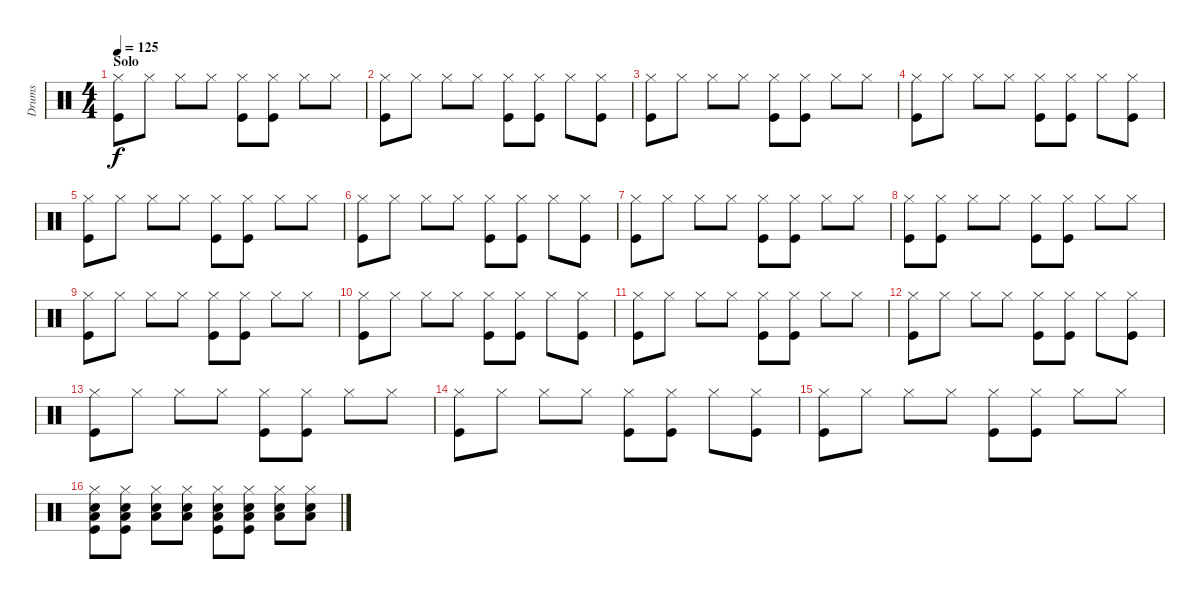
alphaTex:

\track ("Drums" "Drums") {instrument percussion}
\staff {score}
\articulation defaults
\ts (4 4)
\section ("" "Solo")
\tempo 125
\clef neutral
\ks c
("Hi-Hat (closed)" "Kick (hit)").8{dy f} "Hi-Hat (closed)".8 "Hi-Hat (closed)".8 "Hi-Hat (closed)".8 ("Hi-Hat (closed)" "Kick (hit)").8 ("Hi-Hat (closed)" "Kick (hit)").8 "Hi-Hat (closed)".8 "Hi-Hat (closed)".8 |
("Hi-Hat (closed)" "Kick (hit)").8 "Hi-Hat (closed)".8 "Hi-Hat (closed)".8 "Hi-Hat (closed)".8 ("Hi-Hat (closed)" "Kick (hit)").8 ("Hi-Hat (closed)" "Kick (hit)").8 "Hi-Hat (closed)".8 ("Hi-Hat (closed)" "Kick (hit)").8 |
("Hi-Hat (closed)" "Kick (hit)").8 "Hi-Hat (closed)".8 "Hi-Hat (closed)".8 "Hi-Hat (closed)".8 ("Hi-Hat (closed)" "Kick (hit)").8 ("Hi-Hat (closed)" "Kick (hit)").8 "Hi-Hat (closed)".8 "Hi-Hat (closed)".8 |
("Hi-Hat (closed)" "Kick (hit)").8 "Hi-Hat (closed)".8 "Hi-Hat (closed)".8 "Hi-Hat (closed)".8 ("Hi-Hat (closed)" "Kick (hit)").8 ("Hi-Hat (closed)" "Kick (hit)").8 "Hi-Hat (closed)".8 ("Hi-Hat (closed)" "Kick (hit)").8 |
("Hi-Hat (closed)" "Kick (hit)").8 "Hi-Hat (closed)".8 "Hi-Hat (closed)".8 "Hi-Hat (closed)".8 ("Hi-Hat (closed)" "Kick (hit)").8 ("Hi-Hat (closed)" "Kick (hit)").8 "Hi-Hat (closed)".8 "Hi-Hat (closed)".8 |
("Hi-Hat (closed)" "Kick (hit)").8 "Hi-Hat (closed)".8 "Hi-Hat (closed)".8 "Hi-Hat (closed)".8 ("Hi-Hat (closed)" "Kick (hit)").8 ("Hi-Hat (closed)" "Kick (hit)").8 "Hi-Hat (closed)".8 ("Hi-Hat (closed)" "Kick (hit)").8 |
("Hi-Hat (closed)" "Kick (hit)").8 "Hi-Hat (closed)".8 "Hi-Hat (closed)".8 "Hi-Hat (closed)".8 ("Hi-Hat (closed)" "Kick (hit)").8 ("Hi-Hat (closed)" "Kick (hit)").8 "Hi-Hat (closed)".8 "Hi-Hat (closed)".8 |
("Hi-Hat (closed)" "Kick (hit)").8 ("Hi-Hat (closed)" "Kick (hit)").8 "Hi-Hat (closed)".8 "Hi-Hat (closed)".8 ("Hi-Hat (closed)" "Kick (hit)").8 ("Hi-Hat (closed)" "Kick (hit)").8 "Hi-Hat (closed)".8 "Hi-Hat (closed)".8 |
("Hi-Hat (closed)" "Kick (hit)").8 "Hi-Hat (closed)".8 "Hi-Hat (closed)".8 "Hi-Hat (closed)".8 ("Hi-Hat (closed)" "Kick (hit)").8 ("Hi-Hat (closed)" "Kick (hit)").8 "Hi-Hat (closed)".8 "Hi-Hat (closed)".8 |
("Hi-Hat (closed)" "Kick (hit)").8 "Hi-Hat (closed)".8 "Hi-Hat (closed)".8 "Hi-Hat (closed)".8 ("Hi-Hat (closed)" "Kick (hit)").8 ("Hi-Hat (closed)" "Kick (hit)").8 "Hi-Hat (closed)".8 ("Hi-Hat (closed)" "Kick (hit)").8 |
("Hi-Hat (closed)" "Kick (hit)").8 "Hi-Hat (closed)".8 "Hi-Hat (closed)".8 "Hi-Hat (closed)".8 ("Hi-Hat (closed)" "Kick (hit)").8 ("Hi-Hat (closed)" "Kick (hit)").8 "Hi-Hat (closed)".8 "Hi-Hat (closed)".8 |
("Hi-Hat (closed)" "Kick (hit)").8 "Hi-Hat (closed)".8 "Hi-Hat (closed)".8 "Hi-Hat (closed)".8 ("Hi-Hat (closed)" "Kick (hit)").8 ("Hi-Hat (closed)" "Kick (hit)").8 "Hi-Hat (closed)".8 ("Hi-Hat (closed)" "Kick (hit)").8 |
("Hi-Hat (closed)" "Kick (hit)").8 "Hi-Hat (closed)".8 "Hi-Hat (closed)".8 "Hi-Hat (closed)".8 ("Hi-Hat (closed)" "Kick (hit)").8 ("Hi-Hat (closed)" "Kick (hit)").8 "Hi-Hat (closed)".8 "Hi-Hat (closed)".8 |
("Hi-Hat (closed)" "Kick (hit)").8 "Hi-Hat (closed)".8 "Hi-Hat (closed)".8 "Hi-Hat (closed)".8 ("Hi-Hat (closed)" "Kick (hit)").8 ("Hi-Hat (closed)" "Kick (hit)").8 "Hi-Hat (closed)".8 ("Hi-Hat (closed)" "Kick (hit)").8 |
("Hi-Hat (closed)" "Kick (hit)").8 "Hi-Hat (closed)".8 "Hi-Hat (closed)".8 "Hi-Hat (closed)".8 ("Hi-Hat (closed)" "Kick (hit)").8 ("Hi-Hat (closed)" "Kick (hit)").8 "Hi-Hat (closed)".8 "Hi-Hat (closed)".8 |
("Hi-Hat (closed)" "Low Floor Tom (hit)" "Electric Snare (hit)" "Kick (hit)").8 ("Hi-Hat (closed)" "Low Floor Tom (hit)" "Electric Snare (hit)" "Kick (hit)").8 ("Hi-Hat (closed)" "Low Floor Tom (hit)" "Electric Snare (hit)").8 ("Hi-Hat (closed)" "Low Floor Tom (hit)" "Electric Snare (hit)").8 ("Hi-Hat (closed)" "Low Floor Tom (hit)" "Electric Snare (hit)" "Kick (hit)").8 ("Hi-Hat (closed)" "Low Floor Tom (hit)" "Electric Snare (hit)" "Kick (hit)").8 ("Hi-Hat (closed)" "Low Floor Tom (hit)" "Electric Snare (hit)").8 ("Hi-Hat (closed)" "Low Floor Tom (hit)" "Electric Snare (hit)").8
